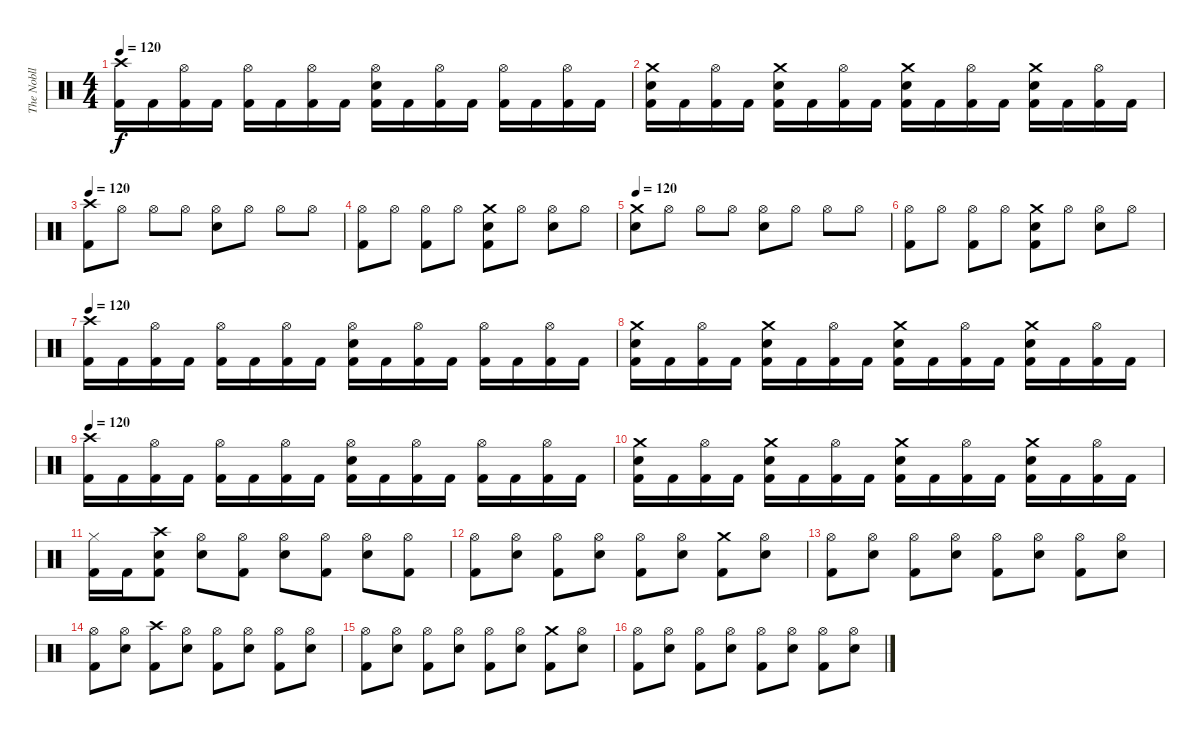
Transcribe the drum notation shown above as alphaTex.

\track ("The Nobll" "The Nobll") {instrument percussion}
\staff {score}
\articulation defaults
\ts (4 4)
\tempo 120
\clef neutral
\ks c
("Crash high (hit)" "Kick (hit) 2").16{dy f} "Kick (hit) 2".16 ("Hi-Hat (open)" "Kick (hit) 2").16 "Kick (hit) 2".16 ("Hi-Hat (open)" "Kick (hit) 2").16 "Kick (hit) 2".16 ("Hi-Hat (open)" "Kick (hit) 2").16 "Kick (hit) 2".16 ("Hi-Hat (open)" "Snare (hit) 2" "Kick (hit) 2").16 "Kick (hit) 2".16 ("Hi-Hat (open)" "Kick (hit) 2").16 "Kick (hit) 2".16 ("Hi-Hat (open)" "Kick (hit) 2").16 "Kick (hit) 2".16 ("Hi-Hat (open)" "Kick (hit) 2").16 "Kick (hit) 2".16 |
("Crash medium (hit)" "Snare (hit) 2" "Kick (hit) 2").16 "Kick (hit) 2".16 ("Hi-Hat (open)" "Kick (hit) 2").16 "Kick (hit) 2".16 ("Crash medium (hit)" "Snare (hit) 2" "Kick (hit) 2").16 "Kick (hit) 2".16 ("Hi-Hat (open)" "Kick (hit) 2").16 "Kick (hit) 2".16 ("Crash medium (hit)" "Snare (hit) 2" "Kick (hit) 2").16 "Kick (hit) 2".16 ("Hi-Hat (open)" "Kick (hit) 2").16 "Kick (hit) 2".16 ("Crash medium (hit)" "Snare (hit) 2" "Kick (hit) 2").16 "Kick (hit) 2".16 ("Hi-Hat (open)" "Kick (hit) 2").16 "Kick (hit) 2".16 |
\tempo 120
("Crash high (hit)" "Kick (hit) 2").8 "Hi-Hat (open)".8 "Hi-Hat (open)".8 "Hi-Hat (open)".8 ("Hi-Hat (open)" "Snare (hit) 2").8 "Hi-Hat (open)".8 "Hi-Hat (open)".8 "Hi-Hat (open)".8 |
("Hi-Hat (open)" "Kick (hit) 2").8 "Hi-Hat (open)".8 ("Hi-Hat (open)" "Kick (hit) 2").8 "Hi-Hat (open)".8 ("Crash medium (hit)" "Snare (hit) 2" "Kick (hit) 2").8 "Hi-Hat (open)".8 ("Hi-Hat (open)" "Snare (hit) 2").8 "Hi-Hat (open)".8 |
\tempo 120
("Crash medium (hit)" "Snare (hit) 2").8 "Hi-Hat (open)".8 "Hi-Hat (open)".8 "Hi-Hat (open)".8 ("Hi-Hat (open)" "Snare (hit) 2").8 "Hi-Hat (open)".8 "Hi-Hat (open)".8 "Hi-Hat (open)".8 |
("Hi-Hat (open)" "Kick (hit) 2").8 "Hi-Hat (open)".8 ("Hi-Hat (open)" "Kick (hit) 2").8 "Hi-Hat (open)".8 ("Crash medium (hit)" "Snare (hit) 2" "Kick (hit) 2").8 "Hi-Hat (open)".8 ("Hi-Hat (open)" "Snare (hit) 2").8 "Hi-Hat (open)".8 |
\tempo 120
("Crash high (hit)" "Kick (hit) 2").16 "Kick (hit) 2".16 ("Hi-Hat (open)" "Kick (hit) 2").16 "Kick (hit) 2".16 ("Hi-Hat (open)" "Kick (hit) 2").16 "Kick (hit) 2".16 ("Hi-Hat (open)" "Kick (hit) 2").16 "Kick (hit) 2".16 ("Hi-Hat (open)" "Snare (hit) 2" "Kick (hit) 2").16 "Kick (hit) 2".16 ("Hi-Hat (open)" "Kick (hit) 2").16 "Kick (hit) 2".16 ("Hi-Hat (open)" "Kick (hit) 2").16 "Kick (hit) 2".16 ("Hi-Hat (open)" "Kick (hit) 2").16 "Kick (hit) 2".16 |
("Crash medium (hit)" "Snare (hit) 2" "Kick (hit) 2").16 "Kick (hit) 2".16 ("Hi-Hat (open)" "Kick (hit) 2").16 "Kick (hit) 2".16 ("Crash medium (hit)" "Snare (hit) 2" "Kick (hit) 2").16 "Kick (hit) 2".16 ("Hi-Hat (open)" "Kick (hit) 2").16 "Kick (hit) 2".16 ("Crash medium (hit)" "Snare (hit) 2" "Kick (hit) 2").16 "Kick (hit) 2".16 ("Hi-Hat (open)" "Kick (hit) 2").16 "Kick (hit) 2".16 ("Crash medium (hit)" "Snare (hit) 2" "Kick (hit) 2").16 "Kick (hit) 2".16 ("Hi-Hat (open)" "Kick (hit) 2").16 "Kick (hit) 2".16 |
\tempo 120
("Crash high (hit)" "Kick (hit) 2").16 "Kick (hit) 2".16 ("Hi-Hat (open)" "Kick (hit) 2").16 "Kick (hit) 2".16 ("Hi-Hat (open)" "Kick (hit) 2").16 "Kick (hit) 2".16 ("Hi-Hat (open)" "Kick (hit) 2").16 "Kick (hit) 2".16 ("Hi-Hat (open)" "Snare (hit) 2" "Kick (hit) 2").16 "Kick (hit) 2".16 ("Hi-Hat (open)" "Kick (hit) 2").16 "Kick (hit) 2".16 ("Hi-Hat (open)" "Kick (hit) 2").16 "Kick (hit) 2".16 ("Hi-Hat (open)" "Kick (hit) 2").16 "Kick (hit) 2".16 |
("Crash medium (hit)" "Snare (hit) 2" "Kick (hit) 2").16 "Kick (hit) 2".16 ("Hi-Hat (open)" "Kick (hit) 2").16 "Kick (hit) 2".16 ("Crash medium (hit)" "Snare (hit) 2" "Kick (hit) 2").16 "Kick (hit) 2".16 ("Hi-Hat (open)" "Kick (hit) 2").16 "Kick (hit) 2".16 ("Crash medium (hit)" "Snare (hit) 2" "Kick (hit) 2").16 "Kick (hit) 2".16 ("Hi-Hat (open)" "Kick (hit) 2").16 "Kick (hit) 2".16 ("Crash medium (hit)" "Snare (hit) 2" "Kick (hit) 2").16 "Kick (hit) 2".16 ("Hi-Hat (open)" "Kick (hit) 2").16 "Kick (hit) 2".16 |
("Hi-Hat (closed)" "Kick (hit) 2").16 "Kick (hit) 2".16 ("Crash high (hit)" "Snare (hit) 2" "Kick (hit) 2").8 ("Hi-Hat (open)" "Snare (hit) 2").8 ("Hi-Hat (open)" "Kick (hit) 2").8 ("Hi-Hat (open)" "Snare (hit) 2").8 ("Hi-Hat (open)" "Kick (hit) 2").8 ("Hi-Hat (open)" "Snare (hit) 2").8 ("Hi-Hat (open)" "Kick (hit) 2").8 |
("Hi-Hat (open)" "Kick (hit) 2").8 ("Hi-Hat (open)" "Snare (hit) 2").8 ("Hi-Hat (open)" "Kick (hit) 2").8 ("Hi-Hat (open)" "Snare (hit) 2").8 ("Hi-Hat (open)" "Kick (hit) 2").8 ("Hi-Hat (open)" "Snare (hit) 2").8 ("Crash medium (hit)" "Kick (hit) 2").8 ("Hi-Hat (open)" "Snare (hit) 2").8 |
("Hi-Hat (open)" "Kick (hit) 2").8 ("Hi-Hat (open)" "Snare (hit) 2").8 ("Hi-Hat (open)" "Kick (hit) 2").8 ("Hi-Hat (open)" "Snare (hit) 2").8 ("Hi-Hat (open)" "Kick (hit) 2").8 ("Hi-Hat (open)" "Snare (hit) 2").8 ("Hi-Hat (open)" "Kick (hit) 2").8 ("Hi-Hat (open)" "Snare (hit) 2").8 |
("Hi-Hat (open)" "Kick (hit) 2").8 ("Hi-Hat (open)" "Snare (hit) 2").8 ("Crash high (hit)" "Kick (hit) 2").8 ("Hi-Hat (open)" "Snare (hit) 2").8 ("Hi-Hat (open)" "Kick (hit) 2").8 ("Hi-Hat (open)" "Snare (hit) 2").8 ("Hi-Hat (open)" "Kick (hit) 2").8 ("Hi-Hat (open)" "Snare (hit) 2").8 |
("Hi-Hat (open)" "Kick (hit) 2").8 ("Hi-Hat (open)" "Snare (hit) 2").8 ("Hi-Hat (open)" "Kick (hit) 2").8 ("Hi-Hat (open)" "Snare (hit) 2").8 ("Hi-Hat (open)" "Kick (hit) 2").8 ("Hi-Hat (open)" "Snare (hit) 2").8 ("Crash medium (hit)" "Kick (hit) 2").8 ("Hi-Hat (open)" "Snare (hit) 2").8 |
("Hi-Hat (open)" "Kick (hit) 2").8 ("Hi-Hat (open)" "Snare (hit) 2").8 ("Hi-Hat (open)" "Kick (hit) 2").8 ("Hi-Hat (open)" "Snare (hit) 2").8 ("Hi-Hat (open)" "Kick (hit) 2").8 ("Hi-Hat (open)" "Snare (hit) 2").8 ("Hi-Hat (open)" "Kick (hit) 2").8 ("Hi-Hat (open)" "Snare (hit) 2").8
